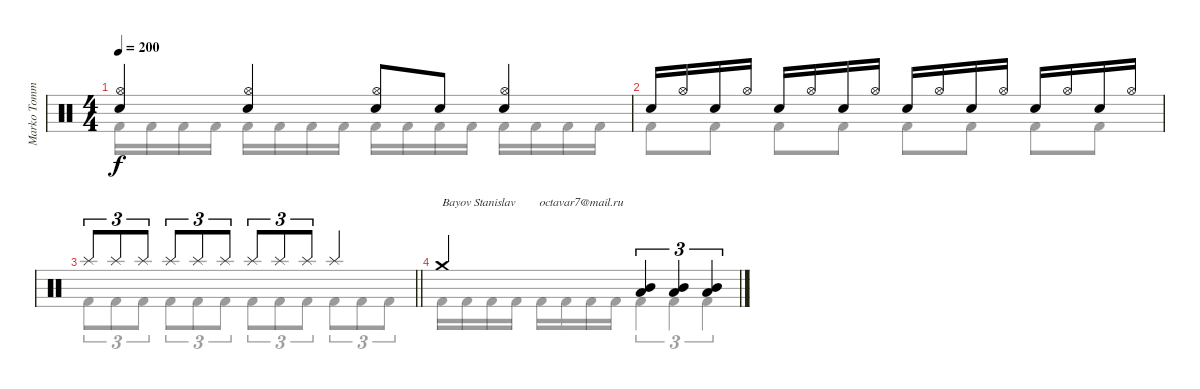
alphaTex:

\track ("Marko Tommila (drums)" "Marko Tomm") {instrument percussion}
\staff {score}
\articulation defaults
\voice
\ts (4 4)
\tempo 200
\clef neutral
\ks c
("Hi-Hat (open)" "Electric Snare (hit)").4{dy f} ("Hi-Hat (open)" "Electric Snare (hit)").4 ("Hi-Hat (open)" "Electric Snare (hit)").8 "Electric Snare (hit)".8 ("Hi-Hat (open)" "Electric Snare (hit)").4 |
"Electric Snare (hit)".16 "Hi-Hat (open)".16 "Electric Snare (hit)".16 "Hi-Hat (open)".16 "Electric Snare (hit)".16 "Hi-Hat (open)".16 "Electric Snare (hit)".16 "Hi-Hat (open)".16 "Electric Snare (hit)".16 "Hi-Hat (open)".16 "Electric Snare (hit)".16 "Hi-Hat (open)".16 "Electric Snare (hit)".16 "Hi-Hat (open)".16 "Electric Snare (hit)".16 "Hi-Hat (open)".16 |
\barLineRight lightlight "Splash (hit)".8{tu (3 2)} "Splash (hit)".8{tu (3 2)} "Splash (hit)".8{tu (3 2)} "Splash (hit)".8{tu (3 2)} "Splash (hit)".8{tu (3 2)} "Splash (hit)".8{tu (3 2)} "Splash (hit)".8{tu (3 2)} "Splash (hit)".8{tu (3 2)} "Splash (hit)".8{tu (3 2)} "Splash (hit)".4
|
"Crash medium (hit)".2{txt "Bayov Stanislav        octavar7@mail.ru"} ("Mid Tom (hit)" "Low Tom (hit)").4{tu (3 2)} ("Mid Tom (hit)" "Low Tom (hit)").4{tu (3 2)} ("Mid Tom (hit)" "Low Tom (hit)").4{tu (3 2)}
\voice
\clef neutral
\ottava regular
\simile none
\ks c "Kick (hit) 2".16{dy f} "Kick (hit) 2".16 "Kick (hit) 2".16 "Kick (hit) 2".16 "Kick (hit) 2".16 "Kick (hit) 2".16 "Kick (hit) 2".16 "Kick (hit) 2".16 "Kick (hit) 2".16 "Kick (hit) 2".16 "Kick (hit) 2".16 "Kick (hit) 2".16 "Kick (hit) 2".16 "Kick (hit) 2".16 "Kick (hit) 2".16 "Kick (hit) 2".16
|
"Kick (hit) 2".8 "Kick (hit) 2".8 "Kick (hit) 2".8 "Kick (hit) 2".8 "Kick (hit) 2".8 "Kick (hit) 2".8 "Kick (hit) 2".8 "Kick (hit) 2".8 |
\barLineRight lightlight "Kick (hit) 2".8{tu (3 2)} "Kick (hit) 2".8{tu (3 2)} "Kick (hit) 2".8{tu (3 2)} "Kick (hit) 2".8{tu (3 2)} "Kick (hit) 2".8{tu (3 2)} "Kick (hit) 2".8{tu (3 2)} "Kick (hit) 2".8{tu (3 2)} "Kick (hit) 2".8{tu (3 2)} "Kick (hit) 2".8{tu (3 2)} "Kick (hit) 2".8{tu (3 2)} "Kick (hit) 2".8{tu (3 2)} "Kick (hit) 2".8{tu (3 2)}
|
"Kick (hit) 2".16 "Kick (hit) 2".16 "Kick (hit) 2".16 "Kick (hit) 2".16 "Kick (hit) 2".16 "Kick (hit) 2".16 "Kick (hit) 2".16 "Kick (hit) 2".16 "Kick (hit) 2".4{tu (3 2)} "Kick (hit) 2".4{tu (3 2)} "Kick (hit) 2".4{tu (3 2)}
